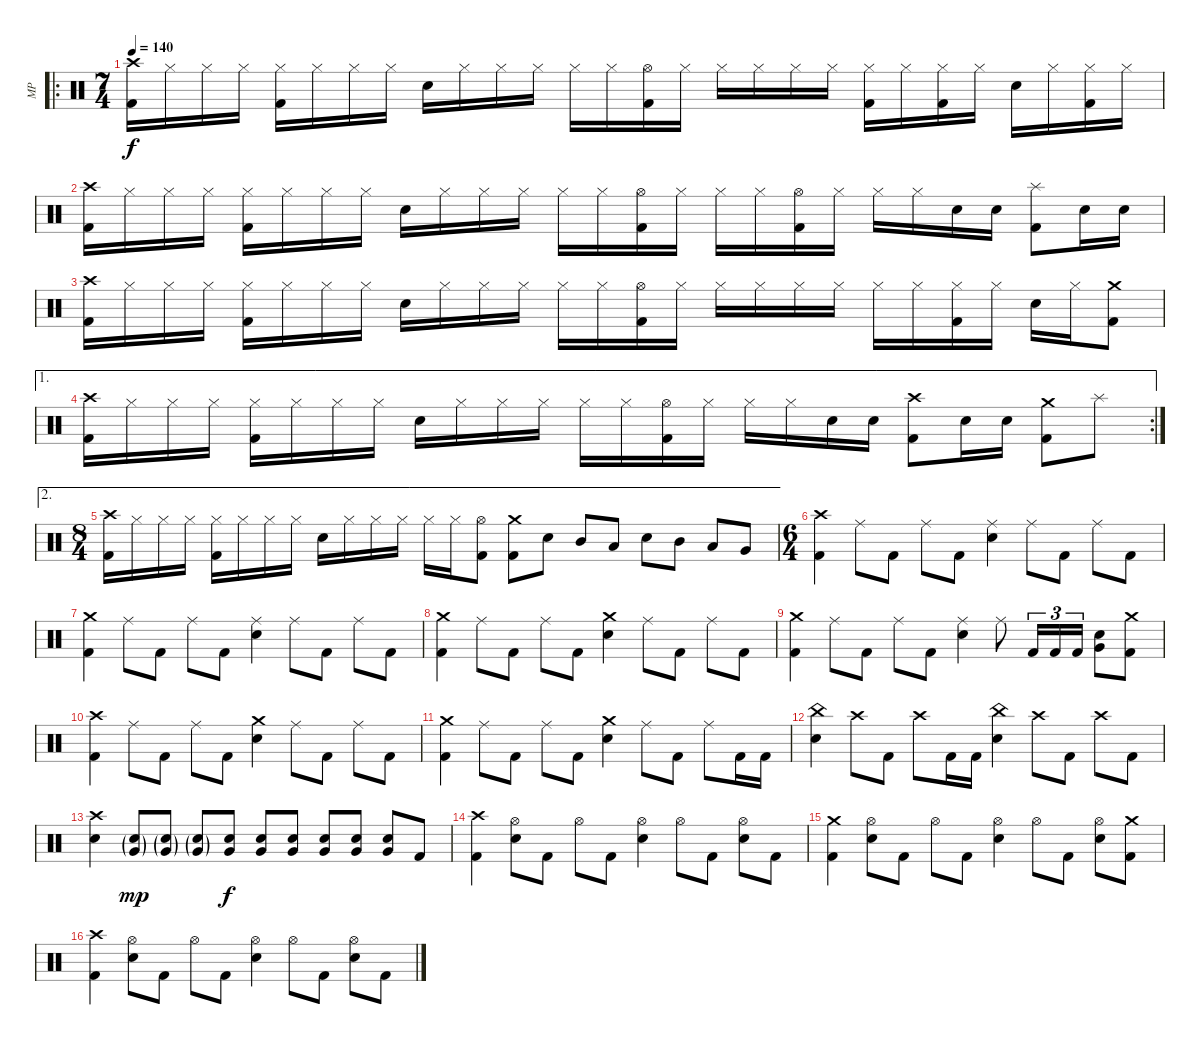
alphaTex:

\track ("MP" "MP") {instrument percussion}
\staff {score}
\articulation defaults
\ro
\ts (7 4)
\tempo 140
\clef neutral
\ks c
("Kick (hit) 2" "Crash high (hit)").16{dy f} "Hi-Hat (closed)".16 "Hi-Hat (closed)".16 "Hi-Hat (closed)".16 ("Kick (hit) 2" "Hi-Hat (closed)").16 "Hi-Hat (closed)".16 "Hi-Hat (closed)".16 "Hi-Hat (closed)".16 "Electric Snare (hit)".16 "Hi-Hat (closed)".16 "Hi-Hat (closed)".16 "Hi-Hat (closed)".16 "Hi-Hat (closed)".16 "Hi-Hat (closed)".16 ("Kick (hit) 2" "Hi-Hat (open)").16 "Hi-Hat (closed)".16 "Hi-Hat (closed)".16 "Hi-Hat (closed)".16 "Hi-Hat (closed)".16 "Hi-Hat (closed)".16 ("Kick (hit) 2" "Hi-Hat (closed)").16 "Hi-Hat (closed)".16 ("Kick (hit) 2" "Hi-Hat (closed)").16 "Hi-Hat (closed)".16 "Electric Snare (hit)".16 "Hi-Hat (closed)".16 ("Kick (hit) 2" "Hi-Hat (closed)").16 "Hi-Hat (closed)".16 |
("Kick (hit) 2" "Crash high (hit)").16 "Hi-Hat (closed)".16 "Hi-Hat (closed)".16 "Hi-Hat (closed)".16 ("Kick (hit) 2" "Hi-Hat (closed)").16 "Hi-Hat (closed)".16 "Hi-Hat (closed)".16 "Hi-Hat (closed)".16 "Electric Snare (hit)".16 "Hi-Hat (closed)".16 "Hi-Hat (closed)".16 "Hi-Hat (closed)".16 "Hi-Hat (closed)".16 "Hi-Hat (closed)".16 ("Kick (hit) 2" "Hi-Hat (open)").16 "Hi-Hat (closed)".16 "Hi-Hat (closed)".16 "Hi-Hat (closed)".16 ("Kick (hit) 2" "Hi-Hat (open)").16 "Hi-Hat (closed)".16 "Hi-Hat (closed)".16 "Hi-Hat (closed)".16 "Electric Snare (hit)".16 "Electric Snare (hit)".16 ("Kick (hit) 2" "Splash (hit)").8 "Electric Snare (hit)".16 "Electric Snare (hit)".16 |
("Kick (hit) 2" "Crash high (hit)").16 "Hi-Hat (closed)".16 "Hi-Hat (closed)".16 "Hi-Hat (closed)".16 ("Kick (hit) 2" "Hi-Hat (closed)").16 "Hi-Hat (closed)".16 "Hi-Hat (closed)".16 "Hi-Hat (closed)".16 "Electric Snare (hit)".16 "Hi-Hat (closed)".16 "Hi-Hat (closed)".16 "Hi-Hat (closed)".16 "Hi-Hat (closed)".16 "Hi-Hat (closed)".16 ("Kick (hit) 2" "Hi-Hat (open)").16 "Hi-Hat (closed)".16 "Hi-Hat (closed)".16 "Hi-Hat (closed)".16 "Hi-Hat (closed)".16 "Hi-Hat (closed)".16 "Hi-Hat (closed)".16 "Hi-Hat (closed)".16 ("Kick (hit) 2" "Hi-Hat (closed)").16 "Hi-Hat (closed)".16 "Electric Snare (hit)".16 "Hi-Hat (closed)".16 ("Kick (hit) 2" "Crash medium (hit)").8 |
\ae 1
\rc 2
("Kick (hit) 2" "Crash high (hit)").16 "Hi-Hat (closed)".16 "Hi-Hat (closed)".16 "Hi-Hat (closed)".16 ("Kick (hit) 2" "Hi-Hat (closed)").16 "Hi-Hat (closed)".16 "Hi-Hat (closed)".16 "Hi-Hat (closed)".16 "Electric Snare (hit)".16 "Hi-Hat (closed)".16 "Hi-Hat (closed)".16 "Hi-Hat (closed)".16 "Hi-Hat (closed)".16 "Hi-Hat (closed)".16 ("Kick (hit) 2" "Hi-Hat (open)").16 "Hi-Hat (closed)".16 "Hi-Hat (closed)".16 "Hi-Hat (closed)".16 "Electric Snare (hit)".16 "Electric Snare (hit)".16 ("Kick (hit) 2" "Crash high (hit)").8 "Electric Snare (hit)".16 "Electric Snare (hit)".16 ("Kick (hit) 2" "Crash medium (hit)").8 "Splash (hit)".8 |
\ae 2
\ts (8 4)
("Kick (hit) 2" "Crash high (hit)").16 "Hi-Hat (closed)".16 "Hi-Hat (closed)".16 "Hi-Hat (closed)".16 ("Kick (hit) 2" "Hi-Hat (closed)").16 "Hi-Hat (closed)".16 "Hi-Hat (closed)".16 "Hi-Hat (closed)".16 "Electric Snare (hit)".16 "Hi-Hat (closed)".16 "Hi-Hat (closed)".16 "Hi-Hat (closed)".16 "Hi-Hat (closed)".16 "Hi-Hat (closed)".16 ("Kick (hit) 2" "Hi-Hat (open)").8 ("Kick (hit) 2" "Crash medium (hit)").8 "Electric Snare (hit)".8 "Mid Tom (hit)".8 "Low Tom (hit)".8 "Electric Snare (hit)".8 "Mid Tom (hit)".8 "Low Tom (hit)".8 "Very Low Tom (hit)".8 |
\ts (6 4)
("Kick (hit) 2" "Crash high (hit)").4 "Ride (middle)".8 "Kick (hit) 2".8 "Ride (middle)".8 "Kick (hit) 2".8 ("Electric Snare (hit)" "Ride (middle)").4 "Ride (middle)".8 "Kick (hit) 2".8 "Ride (middle)".8 "Kick (hit) 2".8 |
("Kick (hit) 2" "Crash medium (hit)").4 "Ride (middle)".8 "Kick (hit) 2".8 "Ride (middle)".8 "Kick (hit) 2".8 ("Electric Snare (hit)" "Ride (middle)").4 "Ride (middle)".8 "Kick (hit) 2".8 "Ride (middle)".8 "Kick (hit) 2".8 |
("Kick (hit) 2" "Crash medium (hit)").4 "Ride (middle)".8 "Kick (hit) 2".8 "Ride (middle)".8 "Kick (hit) 2".8 ("Electric Snare (hit)" "Crash medium (hit)").4 "Ride (middle)".8 "Kick (hit) 2".8 "Ride (middle)".8 "Kick (hit) 2".8 |
("Kick (hit) 2" "Crash medium (hit)").4 "Ride (middle)".8 "Kick (hit) 2".8 "Ride (middle)".8 "Kick (hit) 2".8 ("Electric Snare (hit)" "Ride (middle)").4 "Ride (middle)".8 "Kick (hit) 2".16{tu (3 2)} "Kick (hit) 2".16{tu (3 2)} "Kick (hit) 2".16{tu (3 2)} ("Electric Snare (hit)" "Very Low Tom (hit)").8 ("Kick (hit) 2" "Crash medium (hit)").8 |
("Kick (hit) 2" "Crash high (hit)").4 "Ride (middle)".8 "Kick (hit) 2".8 "Ride (middle)".8 "Kick (hit) 2".8 ("Electric Snare (hit)" "Crash medium (hit)").4 "Ride (middle)".8 "Kick (hit) 2".8 "Ride (middle)".8 "Kick (hit) 2".8 |
("Kick (hit) 2" "Crash medium (hit)").4 "Ride (middle)".8 "Kick (hit) 2".8 "Ride (middle)".8 "Kick (hit) 2".8 ("Electric Snare (hit)" "Crash medium (hit)").4 "Ride (middle)".8 "Kick (hit) 2".8 "Ride (middle)".8 "Kick (hit) 2".16 "Kick (hit) 2".16 |
("Electric Snare (hit)" "China (hit)").4 "Crash high (hit)".8 "Kick (hit) 2".8 "Crash high (hit)".8 "Kick (hit) 2".16 "Kick (hit) 2".16 ("Electric Snare (hit)" "China (hit)").4 "Crash high (hit)".8 "Kick (hit) 2".8 "Crash high (hit)".8 "Kick (hit) 2".8 |
("Electric Snare (hit)" "Crash high (hit)").4 ("Electric Snare (hit)"{g} "Very Low Tom (hit)"{g}).8{dy mp} ("Electric Snare (hit)"{g} "Very Low Tom (hit)"{g}).8 ("Electric Snare (hit)"{g} "Very Low Tom (hit)"{g}).8 ("Electric Snare (hit)" "Very Low Tom (hit)").8{dy f} ("Electric Snare (hit)" "Very Low Tom (hit)").8 ("Electric Snare (hit)" "Very Low Tom (hit)").8 ("Electric Snare (hit)" "Very Low Tom (hit)").8 ("Electric Snare (hit)" "Very Low Tom (hit)").8 ("Electric Snare (hit)" "Very Low Tom (hit)").8 "Kick (hit) 2".8 |
("Kick (hit) 2" "Crash high (hit)").4 ("Electric Snare (hit)" "Hi-Hat (open)").8 "Kick (hit) 2".8 "Hi-Hat (open)".8 "Kick (hit) 2".8 ("Electric Snare (hit)" "Hi-Hat (open)").4 "Hi-Hat (open)".8 "Kick (hit) 2".8 ("Electric Snare (hit)" "Hi-Hat (open)").8 "Kick (hit) 2".8 |
("Kick (hit) 2" "Crash medium (hit)").4 ("Electric Snare (hit)" "Hi-Hat (open)").8 "Kick (hit) 2".8 "Hi-Hat (open)".8 "Kick (hit) 2".8 ("Electric Snare (hit)" "Hi-Hat (open)").4 "Hi-Hat (open)".8 "Kick (hit) 2".8 ("Electric Snare (hit)" "Hi-Hat (open)").8 ("Kick (hit) 2" "Crash medium (hit)").8 |
("Kick (hit) 2" "Crash high (hit)").4 ("Electric Snare (hit)" "Hi-Hat (open)").8 "Kick (hit) 2".8 "Hi-Hat (open)".8 "Kick (hit) 2".8 ("Electric Snare (hit)" "Hi-Hat (open)").4 "Hi-Hat (open)".8 "Kick (hit) 2".8 ("Electric Snare (hit)" "Hi-Hat (open)").8 "Kick (hit) 2".8
